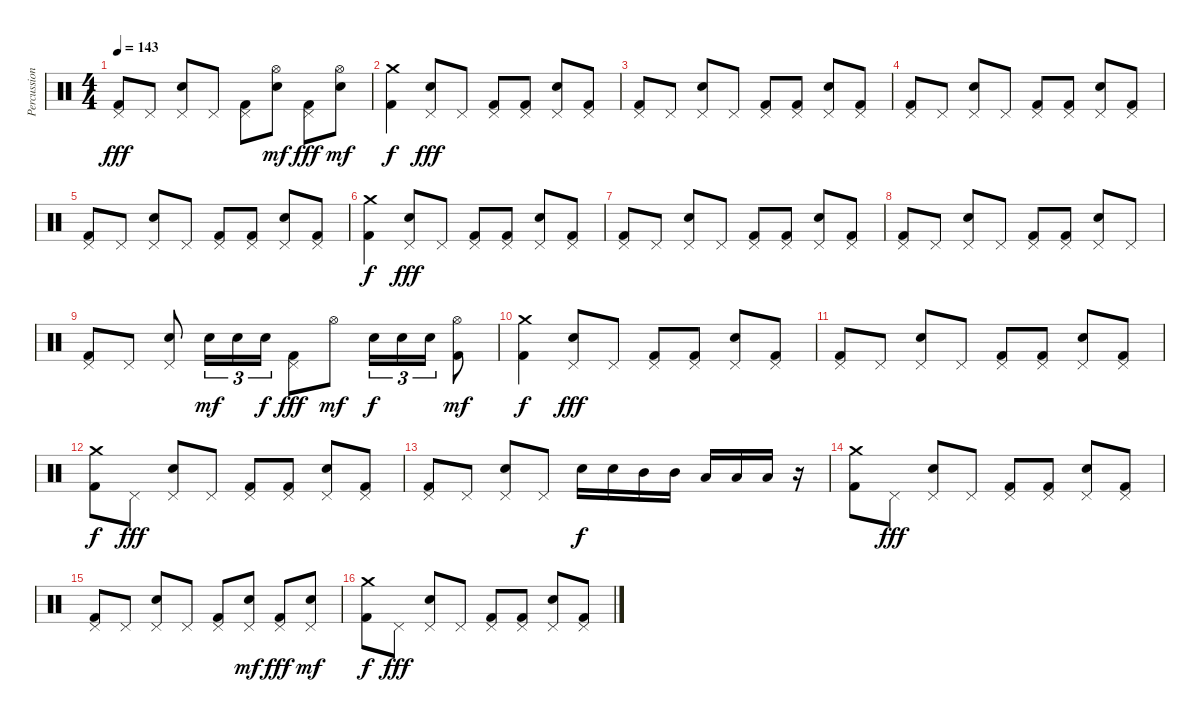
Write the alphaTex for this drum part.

\track ("Percussion" "Percussion") {instrument percussion}
\staff {score}
\articulation defaults
\ts (4 4)
\tempo 143
\clef neutral
\ks c
("Pedal Hi-Hat (hit)" "Kick (hit) 2").8{dy fff} "Pedal Hi-Hat (hit)".8 ("Pedal Hi-Hat (hit)" "Snare (hit) 2").8 "Pedal Hi-Hat (hit)".8 ("Pedal Hi-Hat (hit)" "Kick (hit) 2").8 ("Hi-Hat (open)" "Snare (hit) 2").8{dy mf} ("Pedal Hi-Hat (hit)" "Kick (hit) 2").8{dy fff} ("Hi-Hat (open)" "Snare (hit) 2").8{dy mf} |
("Crash medium (hit)" "Kick (hit) 2").4{dy f} ("Pedal Hi-Hat (hit)" "Snare (hit) 2").8{dy fff} "Pedal Hi-Hat (hit)".8 ("Pedal Hi-Hat (hit)" "Kick (hit) 2").8 ("Pedal Hi-Hat (hit)" "Kick (hit) 2").8 ("Pedal Hi-Hat (hit)" "Snare (hit) 2").8 ("Pedal Hi-Hat (hit)" "Kick (hit) 2").8 |
("Pedal Hi-Hat (hit)" "Kick (hit) 2").8 "Pedal Hi-Hat (hit)".8 ("Pedal Hi-Hat (hit)" "Snare (hit) 2").8 "Pedal Hi-Hat (hit)".8 ("Pedal Hi-Hat (hit)" "Kick (hit) 2").8 ("Pedal Hi-Hat (hit)" "Kick (hit) 2").8 ("Pedal Hi-Hat (hit)" "Snare (hit) 2").8 ("Pedal Hi-Hat (hit)" "Kick (hit) 2").8 |
("Pedal Hi-Hat (hit)" "Kick (hit) 2").8 "Pedal Hi-Hat (hit)".8 ("Pedal Hi-Hat (hit)" "Snare (hit) 2").8 "Pedal Hi-Hat (hit)".8 ("Pedal Hi-Hat (hit)" "Kick (hit) 2").8 ("Pedal Hi-Hat (hit)" "Kick (hit) 2").8 ("Pedal Hi-Hat (hit)" "Snare (hit) 2").8 ("Pedal Hi-Hat (hit)" "Kick (hit) 2").8 |
("Pedal Hi-Hat (hit)" "Kick (hit) 2").8 "Pedal Hi-Hat (hit)".8 ("Pedal Hi-Hat (hit)" "Snare (hit) 2").8 "Pedal Hi-Hat (hit)".8 ("Pedal Hi-Hat (hit)" "Kick (hit) 2").8 ("Pedal Hi-Hat (hit)" "Kick (hit) 2").8 ("Pedal Hi-Hat (hit)" "Snare (hit) 2").8 ("Pedal Hi-Hat (hit)" "Kick (hit) 2").8 |
("Crash medium (hit)" "Kick (hit) 2").4{dy f} ("Pedal Hi-Hat (hit)" "Snare (hit) 2").8{dy fff} "Pedal Hi-Hat (hit)".8 ("Pedal Hi-Hat (hit)" "Kick (hit) 2").8 ("Pedal Hi-Hat (hit)" "Kick (hit) 2").8 ("Pedal Hi-Hat (hit)" "Snare (hit) 2").8 ("Pedal Hi-Hat (hit)" "Kick (hit) 2").8 |
("Pedal Hi-Hat (hit)" "Kick (hit) 2").8 "Pedal Hi-Hat (hit)".8 ("Pedal Hi-Hat (hit)" "Snare (hit) 2").8 "Pedal Hi-Hat (hit)".8 ("Pedal Hi-Hat (hit)" "Kick (hit) 2").8 ("Pedal Hi-Hat (hit)" "Kick (hit) 2").8 ("Pedal Hi-Hat (hit)" "Snare (hit) 2").8 ("Pedal Hi-Hat (hit)" "Kick (hit) 2").8 |
("Pedal Hi-Hat (hit)" "Kick (hit) 2").8 "Pedal Hi-Hat (hit)".8 ("Pedal Hi-Hat (hit)" "Snare (hit) 2").8 "Pedal Hi-Hat (hit)".8 ("Pedal Hi-Hat (hit)" "Kick (hit) 2").8 ("Pedal Hi-Hat (hit)" "Kick (hit) 2").8 ("Pedal Hi-Hat (hit)" "Snare (hit) 2").8 "Pedal Hi-Hat (hit)".8 |
("Pedal Hi-Hat (hit)" "Kick (hit) 2").8 "Pedal Hi-Hat (hit)".8 ("Pedal Hi-Hat (hit)" "Snare (hit) 2").8 "Snare (hit) 2".16{tu (3 2) dy mf} "Snare (hit) 2".16{tu (3 2)} "Snare (hit) 2".16{tu (3 2) dy f} ("Pedal Hi-Hat (hit)" "Kick (hit) 2").8{dy fff} "Hi-Hat (open)".8{dy mf} "Snare (hit) 2".16{tu (3 2) dy f} "Snare (hit) 2".16{tu (3 2)} "Snare (hit) 2".16{tu (3 2)} ("Hi-Hat (open)" "Kick (hit) 2").8{dy mf} |
("Crash medium (hit)" "Kick (hit) 2").4{dy f} ("Pedal Hi-Hat (hit)" "Snare (hit) 2").8{dy fff} "Pedal Hi-Hat (hit)".8 ("Pedal Hi-Hat (hit)" "Kick (hit) 2").8 ("Pedal Hi-Hat (hit)" "Kick (hit) 2").8 ("Pedal Hi-Hat (hit)" "Snare (hit) 2").8 ("Pedal Hi-Hat (hit)" "Kick (hit) 2").8 |
("Pedal Hi-Hat (hit)" "Kick (hit) 2").8 "Pedal Hi-Hat (hit)".8 ("Pedal Hi-Hat (hit)" "Snare (hit) 2").8 "Pedal Hi-Hat (hit)".8 ("Pedal Hi-Hat (hit)" "Kick (hit) 2").8 ("Pedal Hi-Hat (hit)" "Kick (hit) 2").8 ("Pedal Hi-Hat (hit)" "Snare (hit) 2").8 ("Pedal Hi-Hat (hit)" "Kick (hit) 2").8 |
("Crash medium (hit)" "Kick (hit) 2").8{dy f} "Pedal Hi-Hat (hit)".8{dy fff} ("Pedal Hi-Hat (hit)" "Snare (hit) 2").8 "Pedal Hi-Hat (hit)".8 ("Pedal Hi-Hat (hit)" "Kick (hit) 2").8 ("Pedal Hi-Hat (hit)" "Kick (hit) 2").8 ("Pedal Hi-Hat (hit)" "Snare (hit) 2").8 ("Pedal Hi-Hat (hit)" "Kick (hit) 2").8 |
("Pedal Hi-Hat (hit)" "Kick (hit) 2").8 "Pedal Hi-Hat (hit)".8 ("Pedal Hi-Hat (hit)" "Snare (hit) 2").8 "Pedal Hi-Hat (hit)".8 "Snare (hit) 2".16{dy f} "Snare (hit) 2".16 "Mid Tom (hit)".16 "Mid Tom (hit)".16 "Low Tom (hit)".16 "Low Tom (hit)".16 "Low Tom (hit)".16 r.16 |
("Crash medium (hit)" "Kick (hit) 2").8 "Pedal Hi-Hat (hit)".8{dy fff} ("Pedal Hi-Hat (hit)" "Snare (hit) 2").8 "Pedal Hi-Hat (hit)".8 ("Pedal Hi-Hat (hit)" "Kick (hit) 2").8 ("Pedal Hi-Hat (hit)" "Kick (hit) 2").8 ("Pedal Hi-Hat (hit)" "Snare (hit) 2").8 ("Pedal Hi-Hat (hit)" "Kick (hit) 2").8 |
("Pedal Hi-Hat (hit)" "Kick (hit) 2").8 "Pedal Hi-Hat (hit)".8 ("Pedal Hi-Hat (hit)" "Snare (hit) 2").8 "Pedal Hi-Hat (hit)".8 ("Pedal Hi-Hat (hit)" "Kick (hit) 2").8 ("Pedal Hi-Hat (hit)" "Snare (hit) 2").8{dy mf} ("Pedal Hi-Hat (hit)" "Kick (hit) 2").8{dy fff} ("Pedal Hi-Hat (hit)" "Snare (hit) 2").8{dy mf} |
("Crash medium (hit)" "Kick (hit) 2").8{dy f} "Pedal Hi-Hat (hit)".8{dy fff} ("Pedal Hi-Hat (hit)" "Snare (hit) 2").8 "Pedal Hi-Hat (hit)".8 ("Pedal Hi-Hat (hit)" "Kick (hit) 2").8 ("Pedal Hi-Hat (hit)" "Kick (hit) 2").8 ("Pedal Hi-Hat (hit)" "Snare (hit) 2").8 ("Pedal Hi-Hat (hit)" "Kick (hit) 2").8
